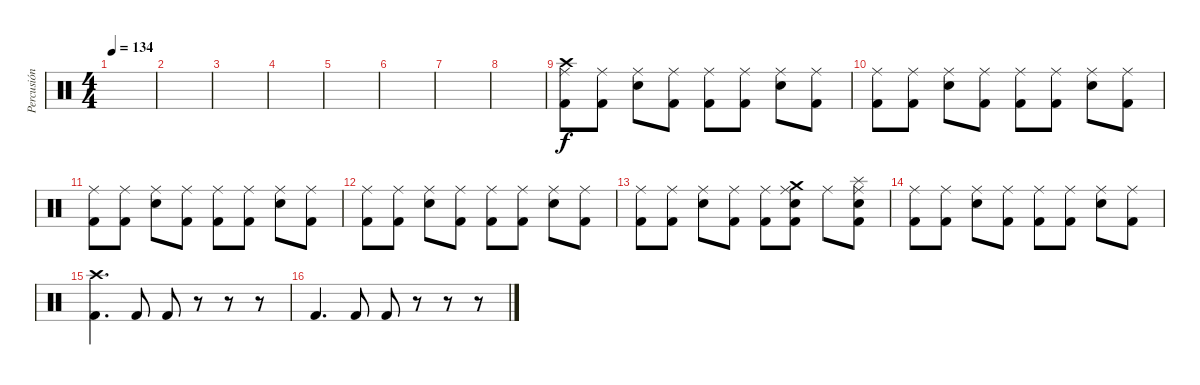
\track ("Percusión" "Percusión") {instrument percussion}
\staff {score}
\articulation defaults
\ts (4 4)
\tempo 134
\clef neutral
\ks c
|
|
|
|
|
|
|
|
("Crash high (hit)" "Ride (middle)" "Kick (hit) 2").8 ("Ride (middle)" "Kick (hit) 2").8 ("Ride (middle)" "Snare (hit) 2").8 ("Ride (middle)" "Kick (hit) 2").8 ("Ride (middle)" "Kick (hit) 2").8 ("Ride (middle)" "Kick (hit) 2").8 ("Ride (middle)" "Snare (hit) 2").8 ("Ride (middle)" "Kick (hit) 2").8 |
("Ride (middle)" "Kick (hit) 2").8 ("Ride (middle)" "Kick (hit) 2").8 ("Ride (middle)" "Snare (hit) 2").8 ("Ride (middle)" "Kick (hit) 2").8 ("Ride (middle)" "Kick (hit) 2").8 ("Ride (middle)" "Kick (hit) 2").8 ("Ride (middle)" "Snare (hit) 2").8 ("Ride (middle)" "Kick (hit) 2").8 |
("Ride (middle)" "Kick (hit) 2").8 ("Ride (middle)" "Kick (hit) 2").8 ("Ride (middle)" "Snare (hit) 2").8 ("Ride (middle)" "Kick (hit) 2").8 ("Ride (middle)" "Kick (hit) 2").8 ("Ride (middle)" "Kick (hit) 2").8 ("Ride (middle)" "Snare (hit) 2").8 ("Ride (middle)" "Kick (hit) 2").8 |
("Ride (middle)" "Kick (hit) 2").8 ("Ride (middle)" "Kick (hit) 2").8 ("Ride (middle)" "Snare (hit) 2").8 ("Ride (middle)" "Kick (hit) 2").8 ("Ride (middle)" "Kick (hit) 2").8 ("Ride (middle)" "Kick (hit) 2").8 ("Ride (middle)" "Snare (hit) 2").8 ("Ride (middle)" "Kick (hit) 2").8 |
("Ride (middle)" "Kick (hit) 2").8 ("Ride (middle)" "Kick (hit) 2").8 ("Ride (middle)" "Snare (hit) 2").8 ("Ride (middle)" "Kick (hit) 2").8 ("Ride (middle)" "Kick (hit) 2").8 ("Crash medium (hit)" "Ride (middle)" "Snare (hit) 2" "Kick (hit) 2").8 "Ride (middle)".8 ("Splash (hit)" "Ride (middle)" "Snare (hit) 2" "Kick (hit) 2").8 |
("Ride (middle)" "Kick (hit) 2").8 ("Ride (middle)" "Kick (hit) 2").8 ("Ride (middle)" "Snare (hit) 2").8 ("Ride (middle)" "Kick (hit) 2").8 ("Ride (middle)" "Kick (hit) 2").8 ("Ride (middle)" "Kick (hit) 2").8 ("Ride (middle)" "Snare (hit) 2").8 ("Ride (middle)" "Kick (hit) 2").8 |
("Crash high (hit)" "Kick (hit) 2").4{d} "Kick (hit) 2".8 "Kick (hit) 2".8 r.8 r.8 r.8 |
"Kick (hit) 2".4{d} "Kick (hit) 2".8 "Kick (hit) 2".8 r.8 r.8 r.8
